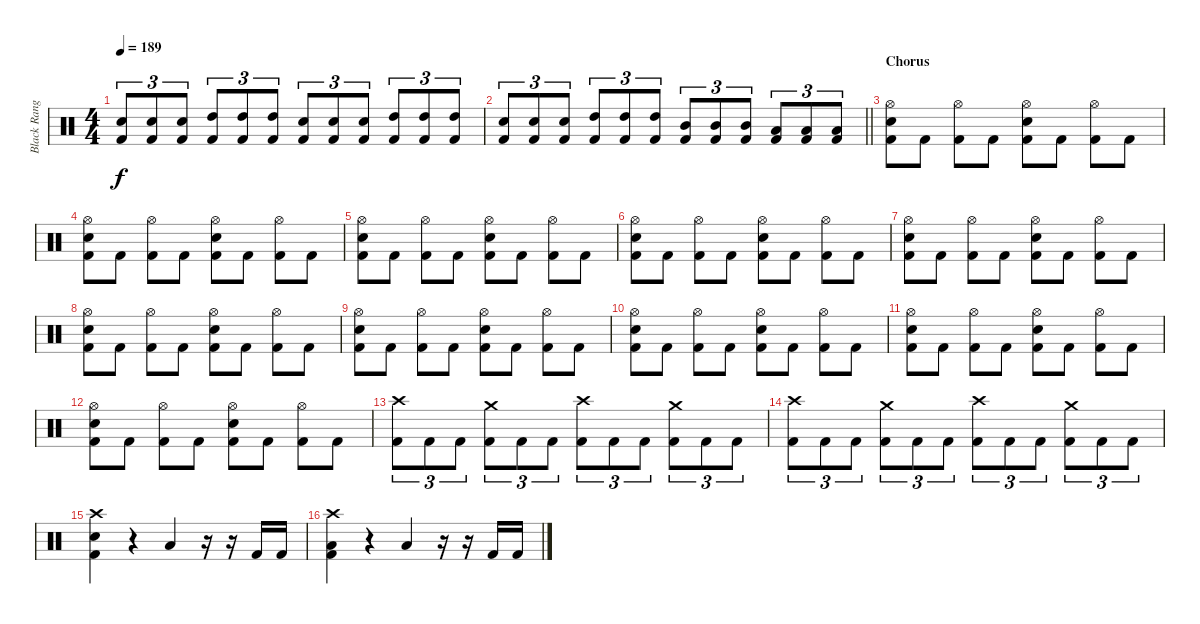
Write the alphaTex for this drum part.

\track ("Black Ranger (Drums)" "Black Rang") {instrument percussion}
\staff {score}
\articulation defaults
\ts (4 4)
\tempo 189
\clef neutral
\ks c
("Kick (hit) 2" "Snare (hit) 2").8{tu (3 2) dy f} ("Kick (hit) 2" "Snare (hit) 2").8{tu (3 2)} ("Kick (hit) 2" "Snare (hit) 2").8{tu (3 2)} ("Kick (hit) 2" "High Tom (hit)").8{tu (3 2)} ("Kick (hit) 2" "High Tom (hit)").8{tu (3 2)} ("Kick (hit) 2" "High Tom (hit)").8{tu (3 2)} ("Kick (hit) 2" "Snare (hit) 2").8{tu (3 2)} ("Kick (hit) 2" "Snare (hit) 2").8{tu (3 2)} ("Kick (hit) 2" "Snare (hit) 2").8{tu (3 2)} ("Kick (hit) 2" "High Tom (hit)").8{tu (3 2)} ("Kick (hit) 2" "High Tom (hit)").8{tu (3 2)} ("Kick (hit) 2" "High Tom (hit)").8{tu (3 2)} |
\barLineRight lightlight
("Kick (hit) 2" "Snare (hit) 2").8{tu (3 2)} ("Kick (hit) 2" "Snare (hit) 2").8{tu (3 2)} ("Kick (hit) 2" "Snare (hit) 2").8{tu (3 2)} ("Kick (hit) 2" "High Tom (hit)").8{tu (3 2)} ("Kick (hit) 2" "High Tom (hit)").8{tu (3 2)} ("Kick (hit) 2" "High Tom (hit)").8{tu (3 2)} ("Kick (hit) 2" "Mid Tom (hit)").8{tu (3 2)} ("Kick (hit) 2" "Mid Tom (hit)").8{tu (3 2)} ("Kick (hit) 2" "Mid Tom (hit)").8{tu (3 2)} ("Kick (hit) 2" "Low Tom (hit)").8{tu (3 2)} ("Kick (hit) 2" "Low Tom (hit)").8{tu (3 2)} ("Kick (hit) 2" "Low Tom (hit)").8{tu (3 2)} |
\section ("" "Chorus")
("Kick (hit) 2" "Snare (hit) 2" "Hi-Hat (open)").8 "Kick (hit) 2".8 ("Kick (hit) 2" "Hi-Hat (open)").8 "Kick (hit) 2".8 ("Kick (hit) 2" "Snare (hit) 2" "Hi-Hat (open)").8 "Kick (hit) 2".8 ("Kick (hit) 2" "Hi-Hat (open)").8 "Kick (hit) 2".8 |
("Kick (hit) 2" "Snare (hit) 2" "Hi-Hat (open)").8 "Kick (hit) 2".8 ("Kick (hit) 2" "Hi-Hat (open)").8 "Kick (hit) 2".8 ("Kick (hit) 2" "Snare (hit) 2" "Hi-Hat (open)").8 "Kick (hit) 2".8 ("Kick (hit) 2" "Hi-Hat (open)").8 "Kick (hit) 2".8 |
("Kick (hit) 2" "Snare (hit) 2" "Hi-Hat (open)").8 "Kick (hit) 2".8 ("Kick (hit) 2" "Hi-Hat (open)").8 "Kick (hit) 2".8 ("Kick (hit) 2" "Snare (hit) 2" "Hi-Hat (open)").8 "Kick (hit) 2".8 ("Kick (hit) 2" "Hi-Hat (open)").8 "Kick (hit) 2".8 |
("Kick (hit) 2" "Snare (hit) 2" "Hi-Hat (open)").8 "Kick (hit) 2".8 ("Kick (hit) 2" "Hi-Hat (open)").8 "Kick (hit) 2".8 ("Kick (hit) 2" "Snare (hit) 2" "Hi-Hat (open)").8 "Kick (hit) 2".8 ("Kick (hit) 2" "Hi-Hat (open)").8 "Kick (hit) 2".8 |
("Kick (hit) 2" "Snare (hit) 2" "Hi-Hat (open)").8 "Kick (hit) 2".8 ("Kick (hit) 2" "Hi-Hat (open)").8 "Kick (hit) 2".8 ("Kick (hit) 2" "Snare (hit) 2" "Hi-Hat (open)").8 "Kick (hit) 2".8 ("Kick (hit) 2" "Hi-Hat (open)").8 "Kick (hit) 2".8 |
("Kick (hit) 2" "Snare (hit) 2" "Hi-Hat (open)").8 "Kick (hit) 2".8 ("Kick (hit) 2" "Hi-Hat (open)").8 "Kick (hit) 2".8 ("Kick (hit) 2" "Snare (hit) 2" "Hi-Hat (open)").8 "Kick (hit) 2".8 ("Kick (hit) 2" "Hi-Hat (open)").8 "Kick (hit) 2".8 |
("Kick (hit) 2" "Snare (hit) 2" "Hi-Hat (open)").8 "Kick (hit) 2".8 ("Kick (hit) 2" "Hi-Hat (open)").8 "Kick (hit) 2".8 ("Kick (hit) 2" "Snare (hit) 2" "Hi-Hat (open)").8 "Kick (hit) 2".8 ("Kick (hit) 2" "Hi-Hat (open)").8 "Kick (hit) 2".8 |
("Kick (hit) 2" "Snare (hit) 2" "Hi-Hat (open)").8 "Kick (hit) 2".8 ("Kick (hit) 2" "Hi-Hat (open)").8 "Kick (hit) 2".8 ("Kick (hit) 2" "Snare (hit) 2" "Hi-Hat (open)").8 "Kick (hit) 2".8 ("Kick (hit) 2" "Hi-Hat (open)").8 "Kick (hit) 2".8 |
("Kick (hit) 2" "Snare (hit) 2" "Hi-Hat (open)").8 "Kick (hit) 2".8 ("Kick (hit) 2" "Hi-Hat (open)").8 "Kick (hit) 2".8 ("Kick (hit) 2" "Snare (hit) 2" "Hi-Hat (open)").8 "Kick (hit) 2".8 ("Kick (hit) 2" "Hi-Hat (open)").8 "Kick (hit) 2".8 |
("Kick (hit) 2" "Snare (hit) 2" "Hi-Hat (open)").8 "Kick (hit) 2".8 ("Kick (hit) 2" "Hi-Hat (open)").8 "Kick (hit) 2".8 ("Kick (hit) 2" "Snare (hit) 2" "Hi-Hat (open)").8 "Kick (hit) 2".8 ("Kick (hit) 2" "Hi-Hat (open)").8 "Kick (hit) 2".8 |
("Kick (hit) 2" "Crash high (hit)").8{tu (3 2)} "Kick (hit) 2".8{tu (3 2)} "Kick (hit) 2".8{tu (3 2)} ("Kick (hit) 2" "Crash medium (hit)").8{tu (3 2)} "Kick (hit) 2".8{tu (3 2)} "Kick (hit) 2".8{tu (3 2)} ("Kick (hit) 2" "Crash high (hit)").8{tu (3 2)} "Kick (hit) 2".8{tu (3 2)} "Kick (hit) 2".8{tu (3 2)} ("Kick (hit) 2" "Crash medium (hit)").8{tu (3 2)} "Kick (hit) 2".8{tu (3 2)} "Kick (hit) 2".8{tu (3 2)} |
("Kick (hit) 2" "Crash high (hit)").8{tu (3 2)} "Kick (hit) 2".8{tu (3 2)} "Kick (hit) 2".8{tu (3 2)} ("Kick (hit) 2" "Crash medium (hit)").8{tu (3 2)} "Kick (hit) 2".8{tu (3 2)} "Kick (hit) 2".8{tu (3 2)} ("Kick (hit) 2" "Crash high (hit)").8{tu (3 2)} "Kick (hit) 2".8{tu (3 2)} "Kick (hit) 2".8{tu (3 2)} ("Kick (hit) 2" "Crash medium (hit)").8{tu (3 2)} "Kick (hit) 2".8{tu (3 2)} "Kick (hit) 2".8{tu (3 2)} |
("Crash high (hit)" "Kick (hit) 2" "Snare (hit) 2").4 r.4 "Low Tom (hit)".4 r.16 r.16 "Kick (hit) 2".16 "Kick (hit) 2".16 |
("Low Tom (hit)" "Kick (hit) 2" "Crash high (hit)").4 r.4 "Low Tom (hit)".4 r.16 r.16 "Kick (hit) 2".16 "Kick (hit) 2".16
